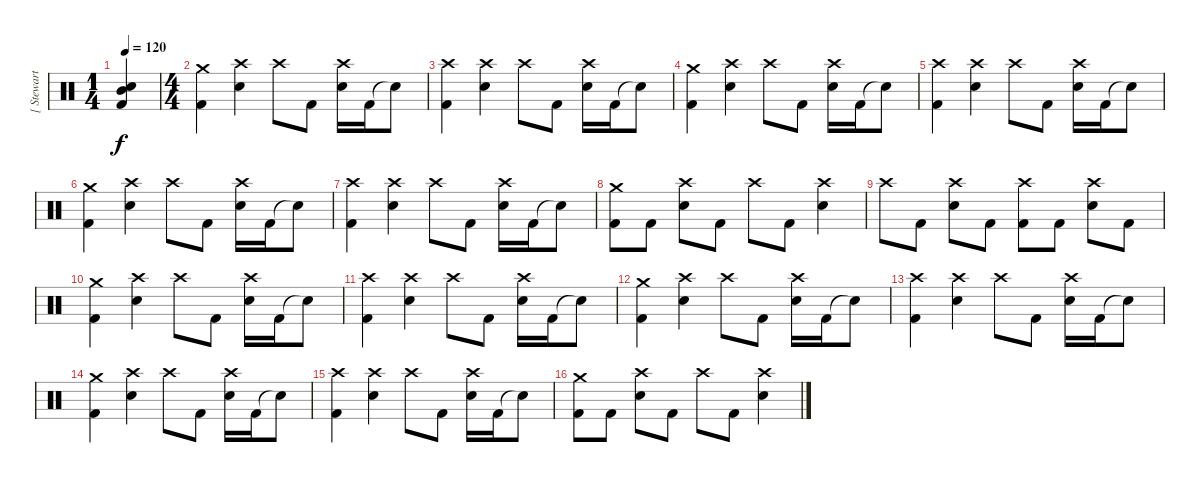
\track ("[ Stewart ] " "[ Stewart ") {instrument percussion}
\staff {score}
\articulation defaults
\ts (1 4)
\tempo 120
\clef neutral
\ks c
("Kick (hit) 2" "Mid Tom (hit)" "Electric Snare (hit)").4{dy f} |
\ts (4 4)
("Kick (hit) 2" "Crash medium (hit)").4 ("Electric Snare (hit)" "Crash high (hit)").4 "Crash high (hit)".8 "Kick (hit) 2".8 ("Electric Snare (hit)" "Crash high (hit)").16 "Kick (hit) 2".16 "Snare (hit)"{t}.8 |
("Kick (hit) 2" "Crash high (hit)").4 ("Electric Snare (hit)" "Crash high (hit)").4 "Crash high (hit)".8 "Kick (hit) 2".8 ("Electric Snare (hit)" "Crash high (hit)").16 "Kick (hit) 2".16 "Snare (hit)"{t}.8 |
("Kick (hit) 2" "Crash medium (hit)").4 ("Electric Snare (hit)" "Crash high (hit)").4 "Crash high (hit)".8 "Kick (hit) 2".8 ("Electric Snare (hit)" "Crash high (hit)").16 "Kick (hit) 2".16 "Snare (hit)"{t}.8 |
("Kick (hit) 2" "Crash high (hit)").4 ("Electric Snare (hit)" "Crash high (hit)").4 "Crash high (hit)".8 "Kick (hit) 2".8 ("Electric Snare (hit)" "Crash high (hit)").16 "Kick (hit) 2".16 "Snare (hit)"{t}.8 |
("Kick (hit) 2" "Crash medium (hit)").4 ("Electric Snare (hit)" "Crash high (hit)").4 "Crash high (hit)".8 "Kick (hit) 2".8 ("Electric Snare (hit)" "Crash high (hit)").16 "Kick (hit) 2".16 "Snare (hit)"{t}.8 |
("Kick (hit) 2" "Crash high (hit)").4 ("Electric Snare (hit)" "Crash high (hit)").4 "Crash high (hit)".8 "Kick (hit) 2".8 ("Electric Snare (hit)" "Crash high (hit)").16 "Kick (hit) 2".16 "Snare (hit)"{t}.8 |
("Kick (hit) 2" "Crash medium (hit)").8 "Kick (hit) 2".8 ("Electric Snare (hit)" "Crash high (hit)").8 "Kick (hit) 2".8 "Crash high (hit)".8 "Kick (hit) 2".8 ("Electric Snare (hit)" "Crash high (hit)").4 |
"Crash high (hit)".8 "Kick (hit) 2".8 ("Electric Snare (hit)" "Crash high (hit)").8 "Kick (hit) 2".8 ("Kick (hit) 2" "Crash high (hit)").8 "Kick (hit) 2".8 ("Electric Snare (hit)" "Crash high (hit)").8 "Kick (hit) 2".8 |
("Kick (hit) 2" "Crash medium (hit)").4 ("Electric Snare (hit)" "Crash high (hit)").4 "Crash high (hit)".8 "Kick (hit) 2".8 ("Electric Snare (hit)" "Crash high (hit)").16 "Kick (hit) 2".16 "Snare (hit)"{t}.8 |
("Kick (hit) 2" "Crash high (hit)").4 ("Electric Snare (hit)" "Crash high (hit)").4 "Crash high (hit)".8 "Kick (hit) 2".8 ("Electric Snare (hit)" "Crash high (hit)").16 "Kick (hit) 2".16 "Snare (hit)"{t}.8 |
("Kick (hit) 2" "Crash medium (hit)").4 ("Electric Snare (hit)" "Crash high (hit)").4 "Crash high (hit)".8 "Kick (hit) 2".8 ("Electric Snare (hit)" "Crash high (hit)").16 "Kick (hit) 2".16 "Snare (hit)"{t}.8 |
("Kick (hit) 2" "Crash high (hit)").4 ("Electric Snare (hit)" "Crash high (hit)").4 "Crash high (hit)".8 "Kick (hit) 2".8 ("Electric Snare (hit)" "Crash high (hit)").16 "Kick (hit) 2".16 "Snare (hit)"{t}.8 |
("Kick (hit) 2" "Crash medium (hit)").4 ("Electric Snare (hit)" "Crash high (hit)").4 "Crash high (hit)".8 "Kick (hit) 2".8 ("Electric Snare (hit)" "Crash high (hit)").16 "Kick (hit) 2".16 "Snare (hit)"{t}.8 |
("Kick (hit) 2" "Crash high (hit)").4 ("Electric Snare (hit)" "Crash high (hit)").4 "Crash high (hit)".8 "Kick (hit) 2".8 ("Electric Snare (hit)" "Crash high (hit)").16 "Kick (hit) 2".16 "Snare (hit)"{t}.8 |
("Kick (hit) 2" "Crash medium (hit)").8 "Kick (hit) 2".8 ("Electric Snare (hit)" "Crash high (hit)").8 "Kick (hit) 2".8 "Crash high (hit)".8 "Kick (hit) 2".8 ("Electric Snare (hit)" "Crash high (hit)").4
